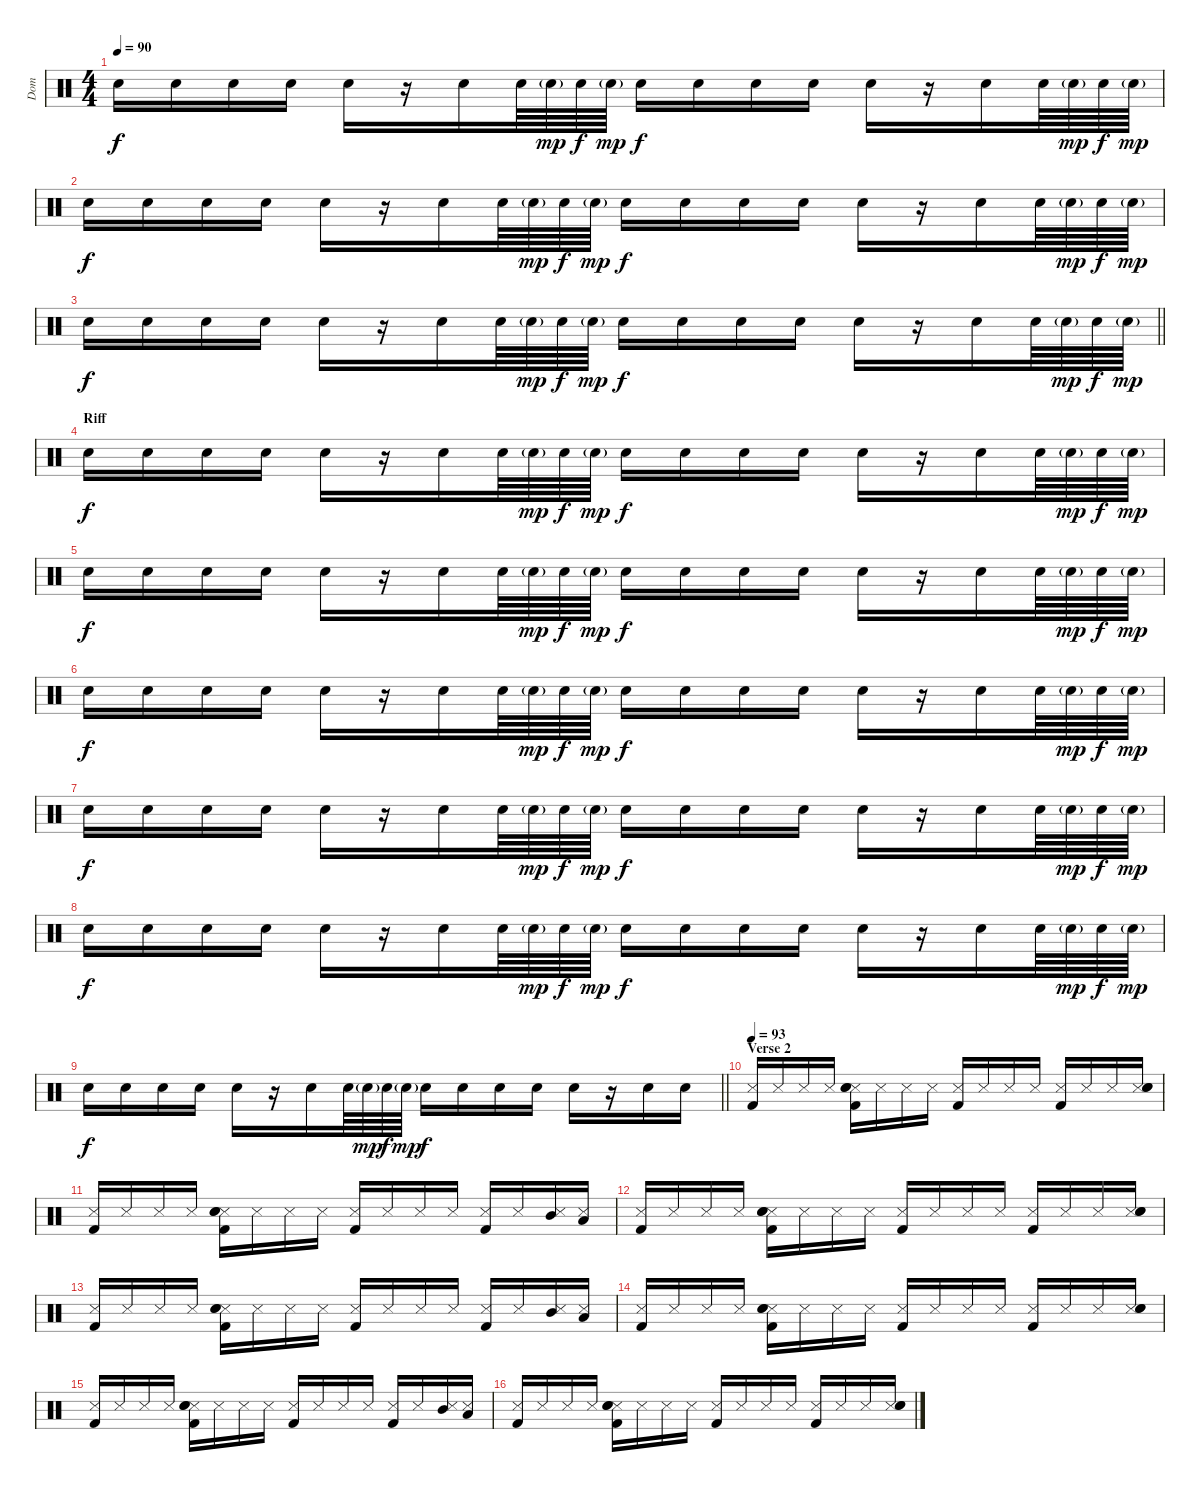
\track ("Dom" "Dom") {instrument percussion}
\staff {score}
\articulation defaults
\ts (4 4)
\tempo 90
\clef neutral
\ks c "Snare (hit) 2".16{dy f} "Snare (hit) 2".16 "Snare (hit) 2".16 "Snare (hit) 2".16 "Snare (hit) 2".16
r.16 "Snare (hit) 2".16 "Snare (hit) 2".64 "Snare (hit) 2"{g}.64{dy mp} "Snare (hit) 2".64{dy f} "Snare (hit) 2"{g}.64{dy mp} "Snare (hit) 2".16{dy f} "Snare (hit) 2".16 "Snare (hit) 2".16 "Snare (hit) 2".16 "Snare (hit) 2".16 r.16 "Snare (hit) 2".16 "Snare (hit) 2".64 "Snare (hit) 2"{g}.64{dy mp} "Snare (hit) 2".64{dy f} "Snare (hit) 2"{g}.64{dy mp} |
"Snare (hit) 2".16{dy f} "Snare (hit) 2".16 "Snare (hit) 2".16 "Snare (hit) 2".16 "Snare (hit) 2".16 r.16 "Snare (hit) 2".16 "Snare (hit) 2".64 "Snare (hit) 2"{g}.64{dy mp} "Snare (hit) 2".64{dy f} "Snare (hit) 2"{g}.64{dy mp} "Snare (hit) 2".16{dy f} "Snare (hit) 2".16 "Snare (hit) 2".16 "Snare (hit) 2".16 "Snare (hit) 2".16 r.16 "Snare (hit) 2".16 "Snare (hit) 2".64 "Snare (hit) 2"{g}.64{dy mp} "Snare (hit) 2".64{dy f} "Snare (hit) 2"{g}.64{dy mp} |
\barLineRight lightlight "Snare (hit) 2".16{dy f} "Snare (hit) 2".16 "Snare (hit) 2".16 "Snare (hit) 2".16 "Snare (hit) 2".16
r.16 "Snare (hit) 2".16 "Snare (hit) 2".64 "Snare (hit) 2"{g}.64{dy mp} "Snare (hit) 2".64{dy f} "Snare (hit) 2"{g}.64{dy mp} "Snare (hit) 2".16{dy f} "Snare (hit) 2".16 "Snare (hit) 2".16 "Snare (hit) 2".16 "Snare (hit) 2".16 r.16 "Snare (hit) 2".16 "Snare (hit) 2".64 "Snare (hit) 2"{g}.64{dy mp} "Snare (hit) 2".64{dy f} "Snare (hit) 2"{g}.64{dy mp} |
\section ("" "Riff")
"Snare (hit) 2".16{dy f} "Snare (hit) 2".16 "Snare (hit) 2".16 "Snare (hit) 2".16 "Snare (hit) 2".16 r.16 "Snare (hit) 2".16 "Snare (hit) 2".64 "Snare (hit) 2"{g}.64{dy mp} "Snare (hit) 2".64{dy f} "Snare (hit) 2"{g}.64{dy mp} "Snare (hit) 2".16{dy f} "Snare (hit) 2".16 "Snare (hit) 2".16 "Snare (hit) 2".16 "Snare (hit) 2".16 r.16 "Snare (hit) 2".16 "Snare (hit) 2".64 "Snare (hit) 2"{g}.64{dy mp} "Snare (hit) 2".64{dy f} "Snare (hit) 2"{g}.64{dy mp} |
"Snare (hit) 2".16{dy f} "Snare (hit) 2".16 "Snare (hit) 2".16 "Snare (hit) 2".16 "Snare (hit) 2".16 r.16 "Snare (hit) 2".16 "Snare (hit) 2".64 "Snare (hit) 2"{g}.64{dy mp} "Snare (hit) 2".64{dy f} "Snare (hit) 2"{g}.64{dy mp} "Snare (hit) 2".16{dy f} "Snare (hit) 2".16 "Snare (hit) 2".16 "Snare (hit) 2".16 "Snare (hit) 2".16 r.16 "Snare (hit) 2".16 "Snare (hit) 2".64 "Snare (hit) 2"{g}.64{dy mp} "Snare (hit) 2".64{dy f} "Snare (hit) 2"{g}.64{dy mp} |
"Snare (hit) 2".16{dy f} "Snare (hit) 2".16 "Snare (hit) 2".16 "Snare (hit) 2".16 "Snare (hit) 2".16 r.16 "Snare (hit) 2".16 "Snare (hit) 2".64 "Snare (hit) 2"{g}.64{dy mp} "Snare (hit) 2".64{dy f} "Snare (hit) 2"{g}.64{dy mp} "Snare (hit) 2".16{dy f} "Snare (hit) 2".16 "Snare (hit) 2".16 "Snare (hit) 2".16 "Snare (hit) 2".16 r.16 "Snare (hit) 2".16 "Snare (hit) 2".64 "Snare (hit) 2"{g}.64{dy mp} "Snare (hit) 2".64{dy f} "Snare (hit) 2"{g}.64{dy mp} |
"Snare (hit) 2".16{dy f} "Snare (hit) 2".16 "Snare (hit) 2".16 "Snare (hit) 2".16 "Snare (hit) 2".16 r.16 "Snare (hit) 2".16 "Snare (hit) 2".64 "Snare (hit) 2"{g}.64{dy mp} "Snare (hit) 2".64{dy f} "Snare (hit) 2"{g}.64{dy mp} "Snare (hit) 2".16{dy f} "Snare (hit) 2".16 "Snare (hit) 2".16 "Snare (hit) 2".16 "Snare (hit) 2".16 r.16 "Snare (hit) 2".16 "Snare (hit) 2".64 "Snare (hit) 2"{g}.64{dy mp} "Snare (hit) 2".64{dy f} "Snare (hit) 2"{g}.64{dy mp} |
"Snare (hit) 2".16{dy f} "Snare (hit) 2".16 "Snare (hit) 2".16 "Snare (hit) 2".16 "Snare (hit) 2".16 r.16 "Snare (hit) 2".16 "Snare (hit) 2".64 "Snare (hit) 2"{g}.64{dy mp} "Snare (hit) 2".64{dy f} "Snare (hit) 2"{g}.64{dy mp} "Snare (hit) 2".16{dy f} "Snare (hit) 2".16 "Snare (hit) 2".16 "Snare (hit) 2".16 "Snare (hit) 2".16 r.16 "Snare (hit) 2".16 "Snare (hit) 2".64 "Snare (hit) 2"{g}.64{dy mp} "Snare (hit) 2".64{dy f} "Snare (hit) 2"{g}.64{dy mp} |
\barLineRight lightlight "Snare (hit) 2".16{dy f} "Snare (hit) 2".16 "Snare (hit) 2".16 "Snare (hit) 2".16 "Snare (hit) 2".16
r.16 "Snare (hit) 2".16 "Snare (hit) 2".64 "Snare (hit) 2"{g}.64{dy mp} "Snare (hit) 2".64{dy f} "Snare (hit) 2"{g}.64{dy mp} "Snare (hit) 2".16{dy f} "Snare (hit) 2".16 "Snare (hit) 2".16 "Snare (hit) 2".16 "Snare (hit) 2".16 r.16 "Snare (hit) 2".16 "Snare (hit) 2".16 |
\section ("" "Verse 2")
\tempo 93
("Snare (side stick) 3" "Kick (hit) 2").16 "Snare (side stick) 3".16 "Snare (side stick) 3".16 "Snare (side stick) 3".16 ("Snare (side stick) 3" "Electric Snare (hit)" "Snare (hit) 2" "Kick (hit) 2").16 "Snare (side stick) 3".16 "Snare (side stick) 3".16 "Snare (side stick) 3".16 ("Snare (side stick) 3" "Kick (hit) 2").16 "Snare (side stick) 3".16 "Snare (side stick) 3".16 "Snare (side stick) 3".16 ("Snare (side stick) 3" "Kick (hit) 2").16 "Snare (side stick) 3".16 "Snare (side stick) 3".16 ("Snare (side stick) 3" "Electric Snare (hit)" "Snare (hit) 2").16 |
("Snare (side stick) 3" "Kick (hit) 2").16 "Snare (side stick) 3".16 "Snare (side stick) 3".16 "Snare (side stick) 3".16 ("Snare (side stick) 3" "Electric Snare (hit)" "Snare (hit) 2" "Kick (hit) 2").16 "Snare (side stick) 3".16 "Snare (side stick) 3".16 "Snare (side stick) 3".16 ("Snare (side stick) 3" "Kick (hit) 2").16 "Snare (side stick) 3".16 "Snare (side stick) 3".16 "Snare (side stick) 3".16 ("Snare (side stick) 3" "Kick (hit) 2").16 "Snare (side stick) 3".16 ("Snare (side stick) 3" "Mid Tom (hit)").16 ("Snare (side stick) 3" "Low Tom (hit)").16 |
("Snare (side stick) 3" "Kick (hit) 2").16 "Snare (side stick) 3".16 "Snare (side stick) 3".16 "Snare (side stick) 3".16 ("Snare (side stick) 3" "Electric Snare (hit)" "Snare (hit) 2" "Kick (hit) 2").16 "Snare (side stick) 3".16 "Snare (side stick) 3".16 "Snare (side stick) 3".16 ("Snare (side stick) 3" "Kick (hit) 2").16 "Snare (side stick) 3".16 "Snare (side stick) 3".16 "Snare (side stick) 3".16 ("Snare (side stick) 3" "Kick (hit) 2").16 "Snare (side stick) 3".16 "Snare (side stick) 3".16 ("Snare (side stick) 3" "Electric Snare (hit)" "Snare (hit) 2").16 |
("Snare (side stick) 3" "Kick (hit) 2").16 "Snare (side stick) 3".16 "Snare (side stick) 3".16 "Snare (side stick) 3".16 ("Snare (side stick) 3" "Electric Snare (hit)" "Snare (hit) 2" "Kick (hit) 2").16 "Snare (side stick) 3".16 "Snare (side stick) 3".16 "Snare (side stick) 3".16 ("Snare (side stick) 3" "Kick (hit) 2").16 "Snare (side stick) 3".16 "Snare (side stick) 3".16 "Snare (side stick) 3".16 ("Snare (side stick) 3" "Kick (hit) 2").16 "Snare (side stick) 3".16 ("Snare (side stick) 3" "Mid Tom (hit)").16 ("Snare (side stick) 3" "Low Tom (hit)").16 |
("Snare (side stick) 3" "Kick (hit) 2").16 "Snare (side stick) 3".16 "Snare (side stick) 3".16 "Snare (side stick) 3".16 ("Snare (side stick) 3" "Electric Snare (hit)" "Snare (hit) 2" "Kick (hit) 2").16 "Snare (side stick) 3".16 "Snare (side stick) 3".16 "Snare (side stick) 3".16 ("Snare (side stick) 3" "Kick (hit) 2").16 "Snare (side stick) 3".16 "Snare (side stick) 3".16 "Snare (side stick) 3".16 ("Snare (side stick) 3" "Kick (hit) 2").16 "Snare (side stick) 3".16 "Snare (side stick) 3".16 ("Snare (side stick) 3" "Electric Snare (hit)" "Snare (hit) 2").16 |
("Snare (side stick) 3" "Kick (hit) 2").16 "Snare (side stick) 3".16 "Snare (side stick) 3".16 "Snare (side stick) 3".16 ("Snare (side stick) 3" "Electric Snare (hit)" "Snare (hit) 2" "Kick (hit) 2").16 "Snare (side stick) 3".16 "Snare (side stick) 3".16 "Snare (side stick) 3".16 ("Snare (side stick) 3" "Kick (hit) 2").16 "Snare (side stick) 3".16 "Snare (side stick) 3".16 "Snare (side stick) 3".16 ("Snare (side stick) 3" "Kick (hit) 2").16 "Snare (side stick) 3".16 ("Snare (side stick) 3" "Mid Tom (hit)").16 ("Snare (side stick) 3" "Low Tom (hit)").16 |
("Snare (side stick) 3" "Kick (hit) 2").16 "Snare (side stick) 3".16 "Snare (side stick) 3".16 "Snare (side stick) 3".16 ("Snare (side stick) 3" "Electric Snare (hit)" "Snare (hit) 2" "Kick (hit) 2").16 "Snare (side stick) 3".16 "Snare (side stick) 3".16 "Snare (side stick) 3".16 ("Snare (side stick) 3" "Kick (hit) 2").16 "Snare (side stick) 3".16 "Snare (side stick) 3".16 "Snare (side stick) 3".16 ("Snare (side stick) 3" "Kick (hit) 2").16 "Snare (side stick) 3".16 "Snare (side stick) 3".16 ("Snare (side stick) 3" "Electric Snare (hit)" "Snare (hit) 2").16
